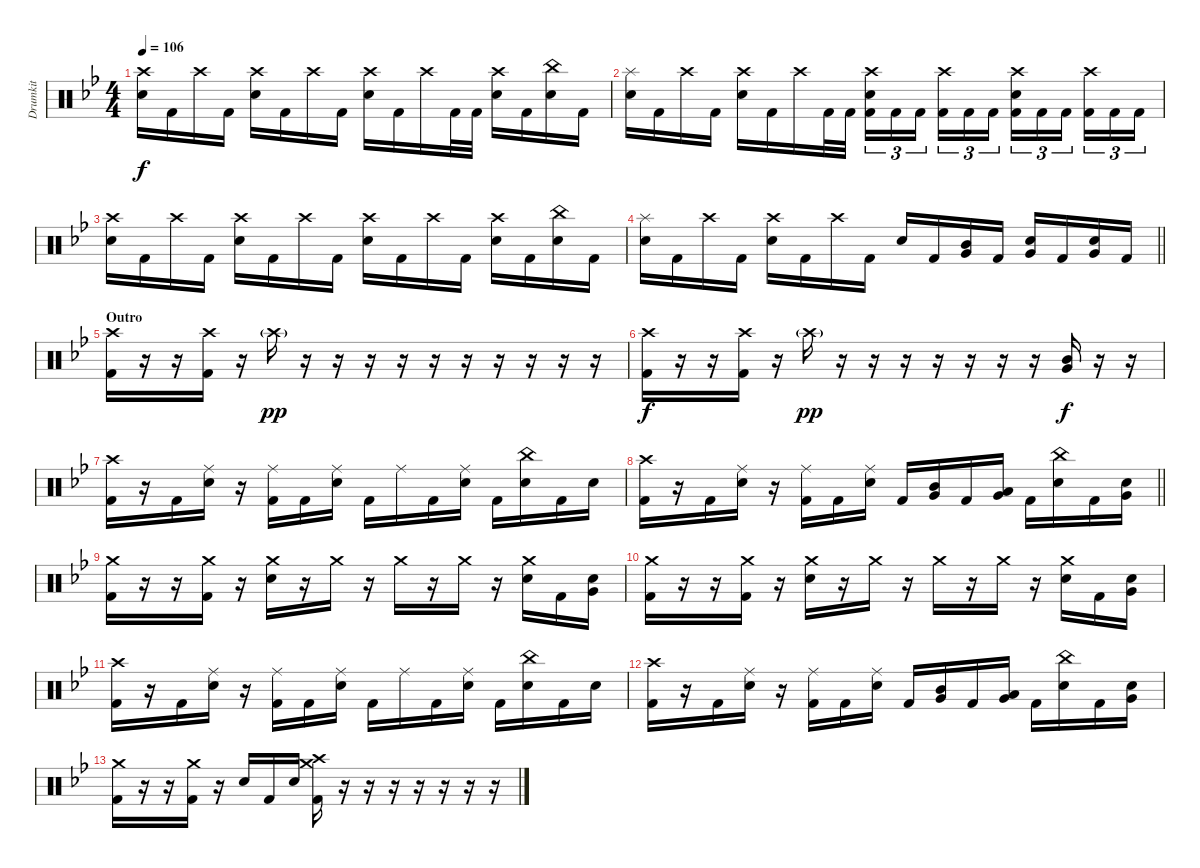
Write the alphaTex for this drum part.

\track ("Drumkit" "Drumkit") {instrument percussion}
\staff {score}
\articulation defaults
\ts (4 4)
\tempo 106
\clef neutral
\ks bb
("Crash high (hit)" "Snare (hit) 2").16{dy f} "Kick (hit) 2".16 "Crash high (hit)".16 "Kick (hit) 2".16 ("Crash high (hit)" "Snare (hit) 2").16 "Kick (hit) 2".16 "Crash high (hit)".16 "Kick (hit) 2".16 ("Crash high (hit)" "Snare (hit) 2").16 "Kick (hit) 2".16 "Crash high (hit)".16 "Kick (hit) 2".32 "Kick (hit) 2".32 ("Crash high (hit)" "Snare (hit) 2").16 "Kick (hit) 2".16 ("China (hit)" "Snare (hit) 2").16 "Kick (hit) 2".16 |
("Splash (hit)" "Snare (hit) 2").16 "Kick (hit) 2".16 "Crash high (hit)".16 "Kick (hit) 2".16 ("Crash high (hit)" "Snare (hit) 2").16 "Kick (hit) 2".16 "Crash high (hit)".16 "Kick (hit) 2".32 "Kick (hit) 2".32 ("Crash high (hit)" "Snare (hit) 2" "Kick (hit) 2").16{tu (3 2)} "Kick (hit) 2".16{tu (3 2)} "Kick (hit) 2".16{tu (3 2)} ("Crash high (hit)" "Kick (hit) 2").16{tu (3 2)} "Kick (hit) 2".16{tu (3 2)} "Kick (hit) 2".16{tu (3 2)} ("Crash high (hit)" "Snare (hit) 2" "Kick (hit) 2").16{tu (3 2)} "Kick (hit) 2".16{tu (3 2)} "Kick (hit) 2".16{tu (3 2)} ("Crash high (hit)" "Kick (hit) 2").16{tu (3 2)} "Kick (hit) 2".16{tu (3 2)} "Kick (hit) 2".16{tu (3 2)} |
("Crash high (hit)" "Snare (hit) 2").16 "Kick (hit) 2".16 "Crash high (hit)".16 "Kick (hit) 2".16 ("Crash high (hit)" "Snare (hit) 2").16 "Kick (hit) 2".16 "Crash high (hit)".16 "Kick (hit) 2".16 ("Crash high (hit)" "Snare (hit) 2").16 "Kick (hit) 2".16 "Crash high (hit)".16 "Kick (hit) 2".16 ("Crash high (hit)" "Snare (hit) 2").16 "Kick (hit) 2".16 ("China (hit)" "Snare (hit) 2").16 "Kick (hit) 2".16 |
\barLineRight lightlight
("Splash (hit)" "Snare (hit) 2").16 "Kick (hit) 2".16 "Crash high (hit)".16 "Kick (hit) 2".16 ("Crash high (hit)" "Snare (hit) 2").16 "Kick (hit) 2".16 "Crash high (hit)".16 "Kick (hit) 2".16 "Snare (hit) 2".16 "Kick (hit) 2".16 ("Mid Tom (hit)" "Very Low Tom (hit)").16 "Kick (hit) 2".16 ("Snare (hit) 2" "Very Low Tom (hit)").16 "Kick (hit) 2".16 ("Snare (hit) 2" "Very Low Tom (hit)").16 "Kick (hit) 2".16 |
\section ("" "Outro")
("Crash high (hit)" "Kick (hit) 2").16 r.16 r.16 ("Crash high (hit)" "Kick (hit) 2").16 r.16 "Crash high (hit)"{g}.16{dy pp} r.16 r.16 r.16 r.16 r.16 r.16 r.16 r.16 r.16 r.16 |
("Crash high (hit)" "Kick (hit) 2").16{dy f} r.16 r.16 ("Crash high (hit)" "Kick (hit) 2").16 r.16 "Crash high (hit)"{g}.16{dy pp} r.16 r.16 r.16 r.16 r.16 r.16 r.16 ("Mid Tom (hit)" "Very Low Tom (hit)").16{dy f} r.16 r.16 |
("Crash high (hit)" "Kick (hit) 2").16 r.16 "Kick (hit) 2".16 ("Ride (middle)" "Snare (hit) 2").16 r.16 ("Ride (middle)" "Kick (hit) 2").16 "Kick (hit) 2".16 ("Ride (middle)" "Snare (hit) 2").16 "Kick (hit) 2".16 "Ride (middle)".16 "Kick (hit) 2".16 ("Ride (middle)" "Snare (hit) 2").16 "Kick (hit) 2".16 ("China (hit)" "Snare (hit) 2").16 "Kick (hit) 2".16 "Snare (hit) 2".16 |
\barLineRight lightlight
("Crash high (hit)" "Kick (hit) 2").16 r.16 "Kick (hit) 2".16 ("Ride (middle)" "Snare (hit) 2").16 r.16 ("Ride (middle)" "Kick (hit) 2").16 "Kick (hit) 2".16 ("Ride (middle)" "Snare (hit) 2").16 "Kick (hit) 2".16 ("Mid Tom (hit)" "Very Low Tom (hit)").16 "Kick (hit) 2".16 ("Low Tom (hit)" "Very Low Tom (hit)").16 "Kick (hit) 2".16 ("China (hit)" "Snare (hit) 2").16 "Kick (hit) 2".16 ("Snare (hit) 2" "Very Low Tom (hit)").16 |
("Crash medium (hit)" "Kick (hit) 2").16 r.16 r.16 ("Crash medium (hit)" "Kick (hit) 2").16 r.16 ("Crash medium (hit)" "Snare (hit) 2").16 r.16 "Crash medium (hit)".16 r.16 "Crash medium (hit)".16 r.16 "Crash medium (hit)".16 r.16 ("Crash medium (hit)" "Snare (hit) 2").16 "Kick (hit) 2".16 ("Snare (hit) 2" "Very Low Tom (hit)").16 |
("Crash medium (hit)" "Kick (hit) 2").16 r.16 r.16 ("Crash medium (hit)" "Kick (hit) 2").16 r.16 ("Crash medium (hit)" "Snare (hit) 2").16 r.16 "Crash medium (hit)".16 r.16 "Crash medium (hit)".16 r.16 "Crash medium (hit)".16 r.16 ("Crash medium (hit)" "Snare (hit) 2").16 "Kick (hit) 2".16 ("Snare (hit) 2" "Very Low Tom (hit)").16 |
("Crash high (hit)" "Kick (hit) 2").16 r.16 "Kick (hit) 2".16 ("Ride (middle)" "Snare (hit) 2").16 r.16 ("Ride (middle)" "Kick (hit) 2").16 "Kick (hit) 2".16 ("Ride (middle)" "Snare (hit) 2").16 "Kick (hit) 2".16 "Ride (middle)".16 "Kick (hit) 2".16 ("Ride (middle)" "Snare (hit) 2").16 "Kick (hit) 2".16 ("China (hit)" "Snare (hit) 2").16 "Kick (hit) 2".16 "Snare (hit) 2".16 |
("Crash high (hit)" "Kick (hit) 2").16 r.16 "Kick (hit) 2".16 ("Ride (middle)" "Snare (hit) 2").16 r.16 ("Ride (middle)" "Kick (hit) 2").16 "Kick (hit) 2".16 ("Ride (middle)" "Snare (hit) 2").16 "Kick (hit) 2".16 ("Mid Tom (hit)" "Very Low Tom (hit)").16 "Kick (hit) 2".16 ("Low Tom (hit)" "Very Low Tom (hit)").16 "Kick (hit) 2".16 ("China (hit)" "Snare (hit) 2").16 "Kick (hit) 2".16 ("Snare (hit) 2" "Very Low Tom (hit)").16 |
("Crash medium (hit)" "Kick (hit) 2").16 r.16 r.16 ("Crash medium (hit)" "Kick (hit) 2").16 r.16 "Snare (hit) 2".16 "Kick (hit) 2".16 "Snare (hit) 2".16 ("Crash high (hit)" "Crash medium (hit)" "Kick (hit) 2").16 r.16 r.16 r.16 r.16 r.16 r.16 r.16
